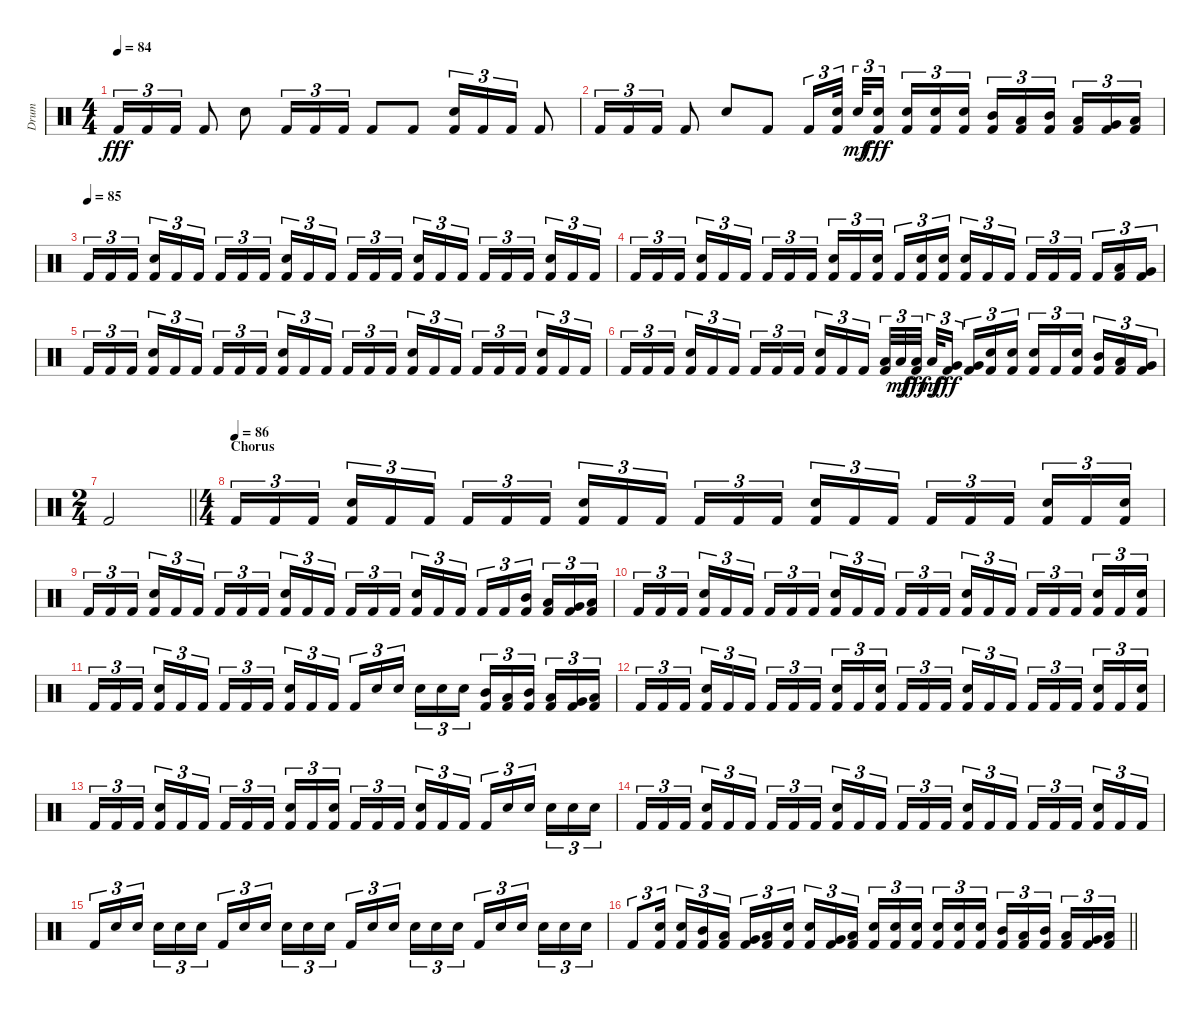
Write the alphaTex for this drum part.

\track ("Drum" "Drum") {instrument percussion}
\staff {score}
\articulation defaults
\ts (4 4)
\tempo 84
\clef neutral
\ks c "Kick (hit) 2".16{tu (3 2) dy fff} "Kick (hit) 2".16{tu (3 2)} "Kick (hit) 2".16{tu (3 2)} "Kick (hit) 2".8 "Snare (hit) 2".8 "Kick (hit) 2".16{tu (3 2)} "Kick (hit) 2".16{tu (3 2)} "Kick (hit) 2".16{tu (3 2)} "Kick (hit) 2".8 "Kick (hit) 2".8
("Snare (hit) 2" "Kick (hit) 2").16{tu (3 2)} "Kick (hit) 2".16{tu (3 2)} "Kick (hit) 2".16{tu (3 2)} "Kick (hit) 2".8 |
"Kick (hit) 2".16{tu (3 2)} "Kick (hit) 2".16{tu (3 2)} "Kick (hit) 2".16{tu (3 2)} "Kick (hit) 2".8 "Snare (hit) 2".8 "Kick (hit) 2".8 "Kick (hit) 2".16{tu (3 2)} ("Snare (hit) 2" "Kick (hit) 2").32{tu (3 2) beam splitsecondary} "Snare (hit) 2".32{tu (3 2) dy mf} ("Snare (hit) 2" "Kick (hit) 2").16{tu (3 2) dy fff beam splitsecondary} ("Snare (hit) 2" "Kick (hit) 2").16{tu (3 2)} ("Snare (hit) 2" "Kick (hit) 2").16{tu (3 2)} ("Snare (hit) 2" "Kick (hit) 2").16{tu (3 2)} ("Mid Tom (hit)" "Kick (hit) 2").16{tu (3 2)} ("Low Tom (hit)" "Kick (hit) 2").16{tu (3 2)} ("Mid Tom (hit)" "Kick (hit) 2").16{tu (3 2) beam splitsecondary} ("Low Tom (hit)" "Kick (hit) 2").16{tu (3 2)} ("Very Low Tom (hit)" "Kick (hit) 2").16{tu (3 2)} ("Low Floor Tom (hit)" "Kick (hit) 2").16{tu (3 2)} |
\tempo (85)
"Kick (hit) 2".16{tu (3 2)} "Kick (hit) 2".16{tu (3 2)} "Kick (hit) 2".16{tu (3 2) beam splitsecondary} ("Snare (hit) 2" "Kick (hit) 2").16{tu (3 2)} "Kick (hit) 2".16{tu (3 2)} "Kick (hit) 2".16{tu (3 2)} "Kick (hit) 2".16{tu (3 2)} "Kick (hit) 2".16{tu (3 2)} "Kick (hit) 2".16{tu (3 2) beam splitsecondary} ("Snare (hit) 2" "Kick (hit) 2").16{tu (3 2)} "Kick (hit) 2".16{tu (3 2)} "Kick (hit) 2".16{tu (3 2)} "Kick (hit) 2".16{tu (3 2)} "Kick (hit) 2".16{tu (3 2)} "Kick (hit) 2".16{tu (3 2) beam splitsecondary} ("Snare (hit) 2" "Kick (hit) 2").16{tu (3 2)} "Kick (hit) 2".16{tu (3 2)} "Kick (hit) 2".16{tu (3 2)} "Kick (hit) 2".16{tu (3 2)} "Kick (hit) 2".16{tu (3 2)} "Kick (hit) 2".16{tu (3 2) beam splitsecondary} ("Snare (hit) 2" "Kick (hit) 2").16{tu (3 2)} "Kick (hit) 2".16{tu (3 2)} "Kick (hit) 2".16{tu (3 2)} |
"Kick (hit) 2".16{tu (3 2)} "Kick (hit) 2".16{tu (3 2)} "Kick (hit) 2".16{tu (3 2) beam splitsecondary} ("Snare (hit) 2" "Kick (hit) 2").16{tu (3 2)} "Kick (hit) 2".16{tu (3 2)} "Kick (hit) 2".16{tu (3 2)} "Kick (hit) 2".16{tu (3 2)} "Kick (hit) 2".16{tu (3 2)} "Kick (hit) 2".16{tu (3 2) beam splitsecondary} ("Snare (hit) 2" "Kick (hit) 2").16{tu (3 2)} "Kick (hit) 2".16{tu (3 2)} ("Snare (hit) 2" "Kick (hit) 2").16{tu (3 2)} "Kick (hit) 2".16{tu (3 2)} ("Snare (hit) 2" "Kick (hit) 2").16{tu (3 2)} ("Snare (hit) 2" "Kick (hit) 2").16{tu (3 2) beam splitsecondary} ("Snare (hit) 2" "Kick (hit) 2").16{tu (3 2)} "Kick (hit) 2".16{tu (3 2)} "Kick (hit) 2".16{tu (3 2)} "Kick (hit) 2".16{tu (3 2)} "Kick (hit) 2".16{tu (3 2)} "Kick (hit) 2".16{tu (3 2) beam splitsecondary} "Kick (hit) 2".16{tu (3 2)} ("Low Tom (hit)" "Kick (hit) 2").16{tu (3 2)} ("Very Low Tom (hit)" "Kick (hit) 2").16{tu (3 2)} |
"Kick (hit) 2".16{tu (3 2)} "Kick (hit) 2".16{tu (3 2)} "Kick (hit) 2".16{tu (3 2) beam splitsecondary} ("Snare (hit) 2" "Kick (hit) 2").16{tu (3 2)} "Kick (hit) 2".16{tu (3 2)} "Kick (hit) 2".16{tu (3 2)} "Kick (hit) 2".16{tu (3 2)} "Kick (hit) 2".16{tu (3 2)} "Kick (hit) 2".16{tu (3 2) beam splitsecondary} ("Snare (hit) 2" "Kick (hit) 2").16{tu (3 2)} "Kick (hit) 2".16{tu (3 2)} "Kick (hit) 2".16{tu (3 2)} "Kick (hit) 2".16{tu (3 2)} "Kick (hit) 2".16{tu (3 2)} "Kick (hit) 2".16{tu (3 2) beam splitsecondary} ("Snare (hit) 2" "Kick (hit) 2").16{tu (3 2)} "Kick (hit) 2".16{tu (3 2)} "Kick (hit) 2".16{tu (3 2)} "Kick (hit) 2".16{tu (3 2)} "Kick (hit) 2".16{tu (3 2)} "Kick (hit) 2".16{tu (3 2) beam splitsecondary} ("Snare (hit) 2" "Kick (hit) 2").16{tu (3 2)} "Kick (hit) 2".16{tu (3 2)} "Kick (hit) 2".16{tu (3 2)} |
"Kick (hit) 2".16{tu (3 2)} "Kick (hit) 2".16{tu (3 2)} "Kick (hit) 2".16{tu (3 2) beam splitsecondary} ("Snare (hit) 2" "Kick (hit) 2").16{tu (3 2)} "Kick (hit) 2".16{tu (3 2)} "Kick (hit) 2".16{tu (3 2)} "Kick (hit) 2".16{tu (3 2)} "Kick (hit) 2".16{tu (3 2)} "Kick (hit) 2".16{tu (3 2) beam splitsecondary} ("Snare (hit) 2" "Kick (hit) 2").16{tu (3 2)} "Kick (hit) 2".16{tu (3 2)} "Kick (hit) 2".16{tu (3 2)} ("Low Tom (hit)" "Kick (hit) 2").32{tu (3 2)} "Low Tom (hit)".32{tu (3 2) dy mf} ("Low Tom (hit)" "Kick (hit) 2").32{tu (3 2) dy fff beam splitsecondary} "Low Tom (hit)".32{tu (3 2) dy mf} ("Very Low Tom (hit)" "Kick (hit) 2").16{tu (3 2) dy fff beam splitsecondary} ("Very Low Tom (hit)" "Kick (hit) 2").16{tu (3 2)} ("Snare (hit) 2" "Kick (hit) 2").16{tu (3 2)} ("Snare (hit) 2" "Kick (hit) 2").16{tu (3 2)} ("Snare (hit) 2" "Kick (hit) 2").16{tu (3 2)} "Kick (hit) 2".16{tu (3 2)} ("Snare (hit) 2" "Kick (hit) 2").16{tu (3 2) beam splitsecondary} ("Mid Tom (hit)" "Kick (hit) 2").16{tu (3 2)} ("Low Tom (hit)" "Kick (hit) 2").16{tu (3 2)} ("Very Low Tom (hit)" "Kick (hit) 2").16{tu (3 2)} |
\ts (2 4)
\barLineRight lightlight "Kick (hit) 2".2
|
\ts (4 4)
\section ("" "Chorus")
\tempo (86)
"Kick (hit) 2".16{tu (3 2)} "Kick (hit) 2".16{tu (3 2)} "Kick (hit) 2".16{tu (3 2) beam splitsecondary} ("Snare (hit) 2" "Kick (hit) 2").16{tu (3 2)} "Kick (hit) 2".16{tu (3 2)} "Kick (hit) 2".16{tu (3 2)} "Kick (hit) 2".16{tu (3 2)} "Kick (hit) 2".16{tu (3 2)} "Kick (hit) 2".16{tu (3 2) beam splitsecondary} ("Snare (hit) 2" "Kick (hit) 2").16{tu (3 2)} "Kick (hit) 2".16{tu (3 2)} "Kick (hit) 2".16{tu (3 2)} "Kick (hit) 2".16{tu (3 2)} "Kick (hit) 2".16{tu (3 2)} "Kick (hit) 2".16{tu (3 2) beam splitsecondary} ("Snare (hit) 2" "Kick (hit) 2").16{tu (3 2)} "Kick (hit) 2".16{tu (3 2)} "Kick (hit) 2".16{tu (3 2)} "Kick (hit) 2".16{tu (3 2)} "Kick (hit) 2".16{tu (3 2)} "Kick (hit) 2".16{tu (3 2) beam splitsecondary} ("Snare (hit) 2" "Kick (hit) 2").16{tu (3 2)} "Kick (hit) 2".16{tu (3 2)} ("Snare (hit) 2" "Kick (hit) 2").16{tu (3 2)} |
"Kick (hit) 2".16{tu (3 2)} "Kick (hit) 2".16{tu (3 2)} "Kick (hit) 2".16{tu (3 2) beam splitsecondary} ("Snare (hit) 2" "Kick (hit) 2").16{tu (3 2)} "Kick (hit) 2".16{tu (3 2)} "Kick (hit) 2".16{tu (3 2)} "Kick (hit) 2".16{tu (3 2)} "Kick (hit) 2".16{tu (3 2)} "Kick (hit) 2".16{tu (3 2) beam splitsecondary} ("Snare (hit) 2" "Kick (hit) 2").16{tu (3 2)} "Kick (hit) 2".16{tu (3 2)} "Kick (hit) 2".16{tu (3 2)} "Kick (hit) 2".16{tu (3 2)} "Kick (hit) 2".16{tu (3 2)} "Kick (hit) 2".16{tu (3 2) beam splitsecondary} ("Snare (hit) 2" "Kick (hit) 2").16{tu (3 2)} "Kick (hit) 2".16{tu (3 2)} "Kick (hit) 2".16{tu (3 2)} "Kick (hit) 2".16{tu (3 2)} "Kick (hit) 2".16{tu (3 2)} ("Mid Tom (hit)" "Kick (hit) 2").16{tu (3 2) beam splitsecondary} ("Low Tom (hit)" "Kick (hit) 2").16{tu (3 2)} ("Very Low Tom (hit)" "Kick (hit) 2").16{tu (3 2)} ("Low Floor Tom (hit)" "Kick (hit) 2").16{tu (3 2)} |
"Kick (hit) 2".16{tu (3 2)} "Kick (hit) 2".16{tu (3 2)} "Kick (hit) 2".16{tu (3 2) beam splitsecondary} ("Snare (hit) 2" "Kick (hit) 2").16{tu (3 2)} "Kick (hit) 2".16{tu (3 2)} "Kick (hit) 2".16{tu (3 2)} "Kick (hit) 2".16{tu (3 2)} "Kick (hit) 2".16{tu (3 2)} "Kick (hit) 2".16{tu (3 2) beam splitsecondary} ("Snare (hit) 2" "Kick (hit) 2").16{tu (3 2)} "Kick (hit) 2".16{tu (3 2)} "Kick (hit) 2".16{tu (3 2)} "Kick (hit) 2".16{tu (3 2)} "Kick (hit) 2".16{tu (3 2)} "Kick (hit) 2".16{tu (3 2) beam splitsecondary} ("Snare (hit) 2" "Kick (hit) 2").16{tu (3 2)} "Kick (hit) 2".16{tu (3 2)} "Kick (hit) 2".16{tu (3 2)} "Kick (hit) 2".16{tu (3 2)} "Kick (hit) 2".16{tu (3 2)} "Kick (hit) 2".16{tu (3 2) beam splitsecondary} ("Snare (hit) 2" "Kick (hit) 2").16{tu (3 2)} "Kick (hit) 2".16{tu (3 2)} ("Snare (hit) 2" "Kick (hit) 2").16{tu (3 2)} |
"Kick (hit) 2".16{tu (3 2)} "Kick (hit) 2".16{tu (3 2)} "Kick (hit) 2".16{tu (3 2) beam splitsecondary} ("Snare (hit) 2" "Kick (hit) 2").16{tu (3 2)} "Kick (hit) 2".16{tu (3 2)} "Kick (hit) 2".16{tu (3 2)} "Kick (hit) 2".16{tu (3 2)} "Kick (hit) 2".16{tu (3 2)} "Kick (hit) 2".16{tu (3 2) beam splitsecondary} ("Snare (hit) 2" "Kick (hit) 2").16{tu (3 2)} "Kick (hit) 2".16{tu (3 2)} "Kick (hit) 2".16{tu (3 2)} "Kick (hit) 2".16{tu (3 2)} "Snare (hit) 2".16{tu (3 2)} "Snare (hit) 2".16{tu (3 2) beam splitsecondary} "Snare (hit) 2".16{tu (3 2)} "Snare (hit) 2".16{tu (3 2)} "Snare (hit) 2".16{tu (3 2)} ("Mid Tom (hit)" "Kick (hit) 2").16{tu (3 2)} ("Low Tom (hit)" "Kick (hit) 2").16{tu (3 2)} ("Mid Tom (hit)" "Kick (hit) 2").16{tu (3 2) beam splitsecondary} ("Low Tom (hit)" "Kick (hit) 2").16{tu (3 2)} ("Very Low Tom (hit)" "Kick (hit) 2").16{tu (3 2)} ("Low Floor Tom (hit)" "Kick (hit) 2").16{tu (3 2)} |
"Kick (hit) 2".16{tu (3 2)} "Kick (hit) 2".16{tu (3 2)} "Kick (hit) 2".16{tu (3 2) beam splitsecondary} ("Snare (hit) 2" "Kick (hit) 2").16{tu (3 2)} "Kick (hit) 2".16{tu (3 2)} "Kick (hit) 2".16{tu (3 2)} "Kick (hit) 2".16{tu (3 2)} "Kick (hit) 2".16{tu (3 2)} "Kick (hit) 2".16{tu (3 2) beam splitsecondary} ("Snare (hit) 2" "Kick (hit) 2").16{tu (3 2)} "Kick (hit) 2".16{tu (3 2)} ("Snare (hit) 2" "Kick (hit) 2").16{tu (3 2)} "Kick (hit) 2".16{tu (3 2)} "Kick (hit) 2".16{tu (3 2)} "Kick (hit) 2".16{tu (3 2) beam splitsecondary} ("Snare (hit) 2" "Kick (hit) 2").16{tu (3 2)} "Kick (hit) 2".16{tu (3 2)} "Kick (hit) 2".16{tu (3 2)} "Kick (hit) 2".16{tu (3 2)} "Kick (hit) 2".16{tu (3 2)} "Kick (hit) 2".16{tu (3 2) beam splitsecondary} ("Snare (hit) 2" "Kick (hit) 2").16{tu (3 2)} "Kick (hit) 2".16{tu (3 2)} ("Snare (hit) 2" "Kick (hit) 2").16{tu (3 2)} |
"Kick (hit) 2".16{tu (3 2)} "Kick (hit) 2".16{tu (3 2)} "Kick (hit) 2".16{tu (3 2) beam splitsecondary} ("Snare (hit) 2" "Kick (hit) 2").16{tu (3 2)} "Kick (hit) 2".16{tu (3 2)} "Kick (hit) 2".16{tu (3 2)} "Kick (hit) 2".16{tu (3 2)} "Kick (hit) 2".16{tu (3 2)} "Kick (hit) 2".16{tu (3 2) beam splitsecondary} ("Snare (hit) 2" "Kick (hit) 2").16{tu (3 2)} "Kick (hit) 2".16{tu (3 2)} ("Snare (hit) 2" "Kick (hit) 2").16{tu (3 2)} "Kick (hit) 2".16{tu (3 2)} "Kick (hit) 2".16{tu (3 2)} "Kick (hit) 2".16{tu (3 2) beam splitsecondary} ("Snare (hit) 2" "Kick (hit) 2").16{tu (3 2)} "Kick (hit) 2".16{tu (3 2)} "Kick (hit) 2".16{tu (3 2)} "Kick (hit) 2".16{tu (3 2)} "Snare (hit) 2".16{tu (3 2)} "Snare (hit) 2".16{tu (3 2) beam splitsecondary} "Snare (hit) 2".16{tu (3 2)} "Snare (hit) 2".16{tu (3 2)} "Snare (hit) 2".16{tu (3 2)} |
"Kick (hit) 2".16{tu (3 2)} "Kick (hit) 2".16{tu (3 2)} "Kick (hit) 2".16{tu (3 2) beam splitsecondary} ("Snare (hit) 2" "Kick (hit) 2").16{tu (3 2)} "Kick (hit) 2".16{tu (3 2)} "Kick (hit) 2".16{tu (3 2)} "Kick (hit) 2".16{tu (3 2)} "Kick (hit) 2".16{tu (3 2)} "Kick (hit) 2".16{tu (3 2) beam splitsecondary} ("Snare (hit) 2" "Kick (hit) 2").16{tu (3 2)} "Kick (hit) 2".16{tu (3 2)} "Kick (hit) 2".16{tu (3 2)} "Kick (hit) 2".16{tu (3 2)} "Kick (hit) 2".16{tu (3 2)} "Kick (hit) 2".16{tu (3 2) beam splitsecondary} ("Snare (hit) 2" "Kick (hit) 2").16{tu (3 2)} "Kick (hit) 2".16{tu (3 2)} "Kick (hit) 2".16{tu (3 2)} "Kick (hit) 2".16{tu (3 2)} "Kick (hit) 2".16{tu (3 2)} "Kick (hit) 2".16{tu (3 2) beam splitsecondary} ("Snare (hit) 2" "Kick (hit) 2").16{tu (3 2)} "Kick (hit) 2".16{tu (3 2)} "Kick (hit) 2".16{tu (3 2)} |
"Kick (hit) 2".16{tu (3 2)} "Snare (hit) 2".16{tu (3 2)} "Snare (hit) 2".16{tu (3 2) beam splitsecondary} "Snare (hit) 2".16{tu (3 2)} "Snare (hit) 2".16{tu (3 2)} "Snare (hit) 2".16{tu (3 2)} "Kick (hit) 2".16{tu (3 2)} "Snare (hit) 2".16{tu (3 2)} "Snare (hit) 2".16{tu (3 2) beam splitsecondary} "Snare (hit) 2".16{tu (3 2)} "Snare (hit) 2".16{tu (3 2)} "Snare (hit) 2".16{tu (3 2)} "Kick (hit) 2".16{tu (3 2)} "Snare (hit) 2".16{tu (3 2)} "Snare (hit) 2".16{tu (3 2) beam splitsecondary} "Snare (hit) 2".16{tu (3 2)} "Snare (hit) 2".16{tu (3 2)} "Snare (hit) 2".16{tu (3 2)} "Kick (hit) 2".16{tu (3 2)} "Snare (hit) 2".16{tu (3 2)} "Snare (hit) 2".16{tu (3 2) beam splitsecondary} "Snare (hit) 2".16{tu (3 2)} "Snare (hit) 2".16{tu (3 2)} "Snare (hit) 2".16{tu (3 2)} |
\barLineRight lightlight "Kick (hit) 2".8{tu (3 2)}
("Snare (hit) 2" "Kick (hit) 2").16{tu (3 2) beam splitsecondary} ("Snare (hit) 2" "Kick (hit) 2").16{tu (3 2)} ("Mid Tom (hit)" "Kick (hit) 2").16{tu (3 2)} ("Low Tom (hit)" "Kick (hit) 2").16{tu (3 2)} ("Very Low Tom (hit)" "Kick (hit) 2").16{tu (3 2)} ("Low Floor Tom (hit)" "Kick (hit) 2").16{tu (3 2)} ("Snare (hit) 2" "Kick (hit) 2").16{tu (3 2) beam splitsecondary} ("Snare (hit) 2" "Kick (hit) 2").16{tu (3 2)} ("Very Low Tom (hit)" "Kick (hit) 2").16{tu (3 2)} ("Low Floor Tom (hit)" "Kick (hit) 2").16{tu (3 2)} ("Snare (hit) 2" "Kick (hit) 2").16{tu (3 2)} ("Snare (hit) 2" "Kick (hit) 2").16{tu (3 2)} ("Snare (hit) 2" "Kick (hit) 2").16{tu (3 2) beam splitsecondary} ("Snare (hit) 2" "Kick (hit) 2").16{tu (3 2)} ("Snare (hit) 2" "Kick (hit) 2").16{tu (3 2)} ("Snare (hit) 2" "Kick (hit) 2").16{tu (3 2)} ("Mid Tom (hit)" "Kick (hit) 2").16{tu (3 2)} ("Low Tom (hit)" "Kick (hit) 2").16{tu (3 2)} ("Mid Tom (hit)" "Kick (hit) 2").16{tu (3 2) beam splitsecondary} ("Low Tom (hit)" "Kick (hit) 2").16{tu (3 2)} ("Very Low Tom (hit)" "Kick (hit) 2").16{tu (3 2)} ("Low Floor Tom (hit)" "Kick (hit) 2").16{tu (3 2)}
